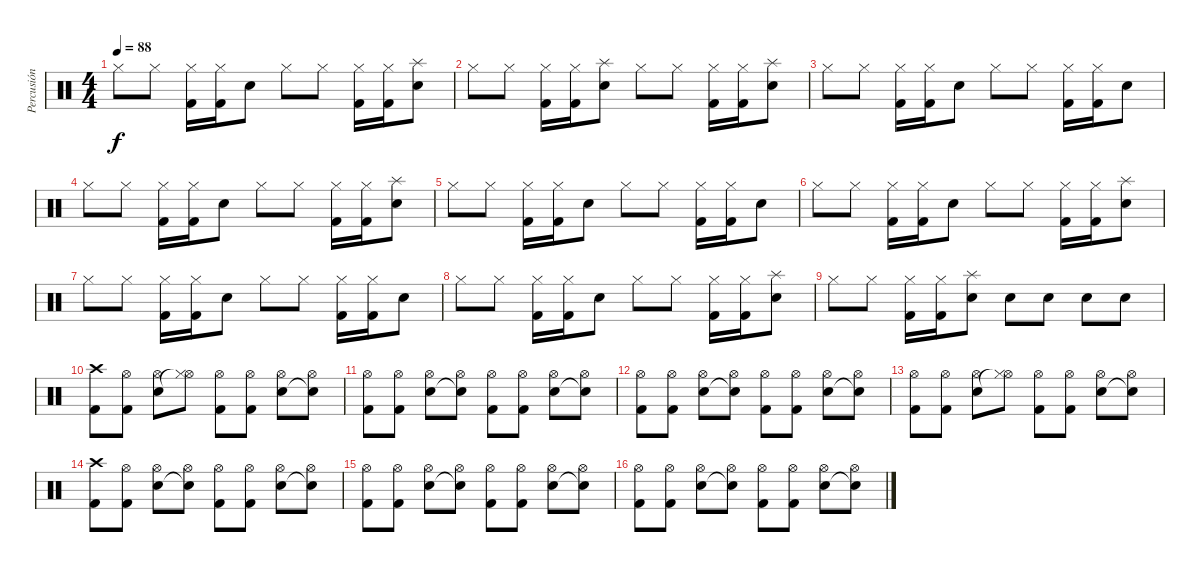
\track ("Percusión" "Percusión") {instrument percussion}
\staff {score}
\articulation defaults
\ts (4 4)
\tempo 88
\clef neutral
\ks c "Hi-Hat (closed)".8{dy f} "Hi-Hat (closed)".8
("Hi-Hat (closed)" "Kick (hit) 2").16 ("Hi-Hat (closed)" "Kick (hit) 2").16 "Snare (hit) 2".8 "Hi-Hat (closed)".8 "Hi-Hat (closed)".8 ("Hi-Hat (closed)" "Kick (hit) 2").16 ("Hi-Hat (closed)" "Kick (hit) 2").16 ("Splash (hit)" "Snare (hit) 2").8 |
"Hi-Hat (closed)".8 "Hi-Hat (closed)".8 ("Hi-Hat (closed)" "Kick (hit) 2").16 ("Hi-Hat (closed)" "Kick (hit) 2").16 ("Splash (hit)" "Snare (hit) 2").8 "Hi-Hat (closed)".8 "Hi-Hat (closed)".8 ("Hi-Hat (closed)" "Kick (hit) 2").16 ("Hi-Hat (closed)" "Kick (hit) 2").16 ("Splash (hit)" "Snare (hit) 2").8 |
"Hi-Hat (closed)".8 "Hi-Hat (closed)".8 ("Hi-Hat (closed)" "Kick (hit) 2").16 ("Hi-Hat (closed)" "Kick (hit) 2").16 "Snare (hit) 2".8 "Hi-Hat (closed)".8 "Hi-Hat (closed)".8 ("Hi-Hat (closed)" "Kick (hit) 2").16 ("Hi-Hat (closed)" "Kick (hit) 2").16 "Snare (hit) 2".8 |
"Hi-Hat (closed)".8 "Hi-Hat (closed)".8 ("Hi-Hat (closed)" "Kick (hit) 2").16 ("Hi-Hat (closed)" "Kick (hit) 2").16 "Snare (hit) 2".8 "Hi-Hat (closed)".8 "Hi-Hat (closed)".8 ("Hi-Hat (closed)" "Kick (hit) 2").16 ("Hi-Hat (closed)" "Kick (hit) 2").16 ("Splash (hit)" "Snare (hit) 2").8 |
"Hi-Hat (closed)".8 "Hi-Hat (closed)".8 ("Hi-Hat (closed)" "Kick (hit) 2").16 ("Hi-Hat (closed)" "Kick (hit) 2").16 "Snare (hit) 2".8 "Hi-Hat (closed)".8 "Hi-Hat (closed)".8 ("Hi-Hat (closed)" "Kick (hit) 2").16 ("Hi-Hat (closed)" "Kick (hit) 2").16 "Snare (hit) 2".8 |
"Hi-Hat (closed)".8 "Hi-Hat (closed)".8 ("Hi-Hat (closed)" "Kick (hit) 2").16 ("Hi-Hat (closed)" "Kick (hit) 2").16 "Snare (hit) 2".8 "Hi-Hat (closed)".8 "Hi-Hat (closed)".8 ("Hi-Hat (closed)" "Kick (hit) 2").16 ("Hi-Hat (closed)" "Kick (hit) 2").16 ("Splash (hit)" "Snare (hit) 2").8 |
"Hi-Hat (closed)".8 "Hi-Hat (closed)".8 ("Hi-Hat (closed)" "Kick (hit) 2").16 ("Hi-Hat (closed)" "Kick (hit) 2").16 "Snare (hit) 2".8 "Hi-Hat (closed)".8 "Hi-Hat (closed)".8 ("Hi-Hat (closed)" "Kick (hit) 2").16 ("Hi-Hat (closed)" "Kick (hit) 2").16 "Snare (hit) 2".8 |
"Hi-Hat (closed)".8 "Hi-Hat (closed)".8 ("Hi-Hat (closed)" "Kick (hit) 2").16 ("Hi-Hat (closed)" "Kick (hit) 2").16 "Snare (hit) 2".8 "Hi-Hat (closed)".8 "Hi-Hat (closed)".8 ("Hi-Hat (closed)" "Kick (hit) 2").16 ("Hi-Hat (closed)" "Kick (hit) 2").16 ("Splash (hit)" "Snare (hit) 2").8 |
"Hi-Hat (closed)".8 "Hi-Hat (closed)".8 ("Hi-Hat (closed)" "Kick (hit) 2").16 ("Hi-Hat (closed)" "Kick (hit) 2").16 ("Splash (hit)" "Snare (hit) 2").8 "Snare (hit) 2".8 "Snare (hit) 2".8 "Snare (hit) 2".8 "Snare (hit) 2".8 |
("Crash high (hit)" "Kick (hit) 2").8 ("Hi-Hat (open)" "Kick (hit) 2").8 ("Hi-Hat (open)" "Snare (hit) 2").8 ("Hi-Hat (open)" "Hi-Hat (closed)"{t}).8 ("Hi-Hat (open)" "Kick (hit) 2").8 ("Hi-Hat (open)" "Kick (hit) 2").8 ("Hi-Hat (open)" "Snare (hit) 2").8 ("Hi-Hat (open)" "Snare (hit)"{t}).8 |
("Hi-Hat (open)" "Kick (hit) 2").8 ("Hi-Hat (open)" "Kick (hit) 2").8 ("Hi-Hat (open)" "Snare (hit) 2").8 ("Hi-Hat (open)" "Snare (hit)"{t}).8 ("Hi-Hat (open)" "Kick (hit) 2").8 ("Hi-Hat (open)" "Kick (hit) 2").8 ("Hi-Hat (open)" "Snare (hit) 2").8 ("Hi-Hat (open)" "Snare (hit)"{t}).8 |
("Hi-Hat (open)" "Kick (hit) 2").8 ("Hi-Hat (open)" "Kick (hit) 2").8 ("Hi-Hat (open)" "Snare (hit) 2").8 ("Hi-Hat (open)" "Snare (hit)"{t}).8 ("Hi-Hat (open)" "Kick (hit) 2").8 ("Hi-Hat (open)" "Kick (hit) 2").8 ("Hi-Hat (open)" "Snare (hit) 2").8 ("Hi-Hat (open)" "Snare (hit)"{t}).8 |
("Hi-Hat (open)" "Kick (hit) 2").8 ("Hi-Hat (open)" "Kick (hit) 2").8 ("Hi-Hat (open)" "Snare (hit) 2").8 ("Hi-Hat (open)" "Hi-Hat (closed)"{t}).8 ("Hi-Hat (open)" "Kick (hit) 2").8 ("Hi-Hat (open)" "Kick (hit) 2").8 ("Hi-Hat (open)" "Snare (hit) 2").8 ("Hi-Hat (open)" "Snare (hit)"{t}).8 |
("Crash high (hit)" "Kick (hit) 2").8 ("Hi-Hat (open)" "Kick (hit) 2").8 ("Hi-Hat (open)" "Snare (hit) 2").8 ("Hi-Hat (open)" "Snare (hit)"{t}).8 ("Hi-Hat (open)" "Kick (hit) 2").8 ("Hi-Hat (open)" "Kick (hit) 2").8 ("Hi-Hat (open)" "Snare (hit) 2").8 ("Hi-Hat (open)" "Snare (hit)"{t}).8 |
("Hi-Hat (open)" "Kick (hit) 2").8 ("Hi-Hat (open)" "Kick (hit) 2").8 ("Hi-Hat (open)" "Snare (hit) 2").8 ("Hi-Hat (open)" "Snare (hit)"{t}).8 ("Hi-Hat (open)" "Kick (hit) 2").8 ("Hi-Hat (open)" "Kick (hit) 2").8 ("Hi-Hat (open)" "Snare (hit) 2").8 ("Hi-Hat (open)" "Snare (hit)"{t}).8 |
("Hi-Hat (open)" "Kick (hit) 2").8 ("Hi-Hat (open)" "Kick (hit) 2").8 ("Hi-Hat (open)" "Snare (hit) 2").8 ("Hi-Hat (open)" "Snare (hit)"{t}).8 ("Hi-Hat (open)" "Kick (hit) 2").8 ("Hi-Hat (open)" "Kick (hit) 2").8 ("Hi-Hat (open)" "Snare (hit) 2").8 ("Hi-Hat (open)" "Snare (hit)"{t}).8
